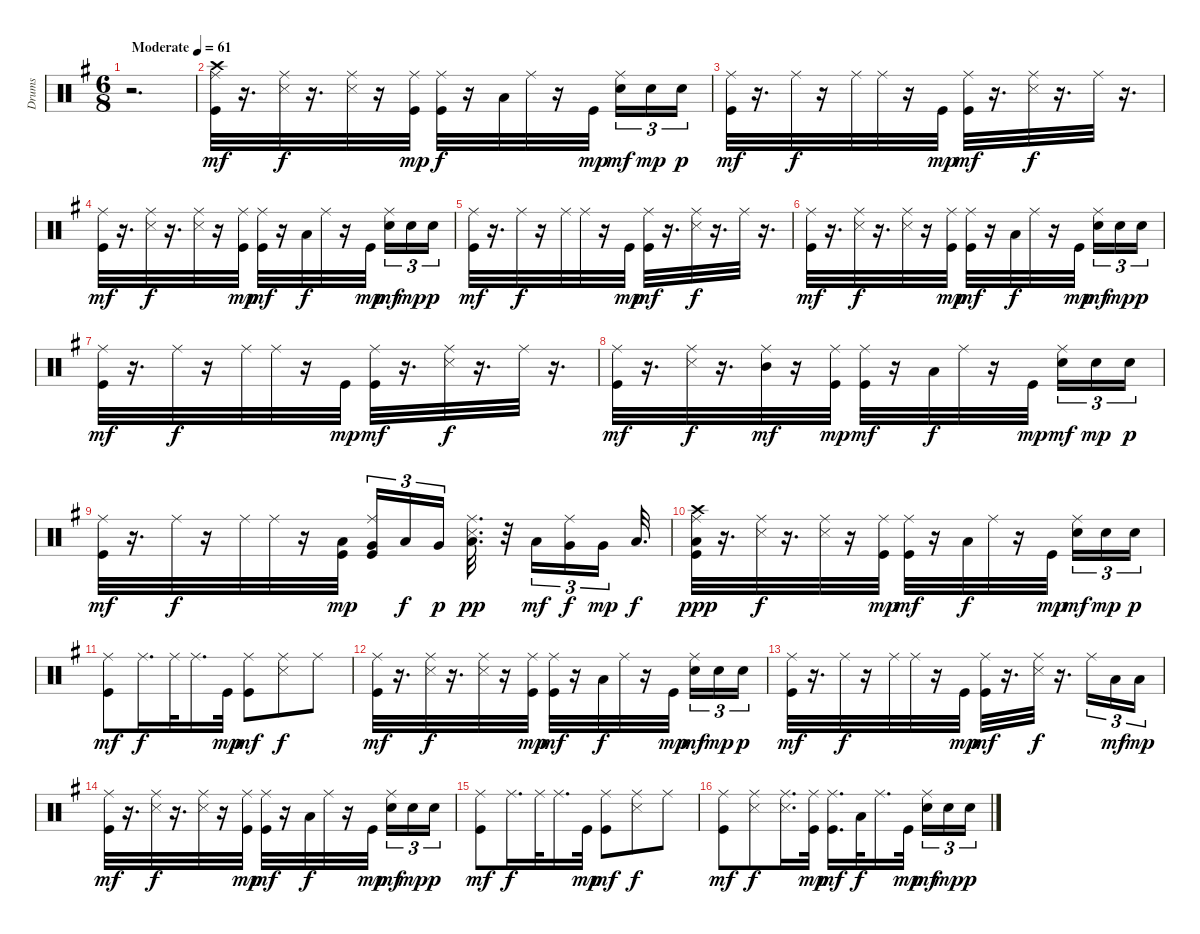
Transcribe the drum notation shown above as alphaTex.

\track ("Drums" "Drums") {instrument percussion}
\staff {score}
\articulation defaults
\ts (6 8)
\tempo (61 "Moderate")
\clef neutral
\ks g
r.2{d dy mf} |
("Kick (hit)" "Crash high (hit)" "Ride (middle)").32 r.16{d} ("Snare (side stick) 3" "Ride (middle)").32{dy f} r.16{d} ("Snare (side stick) 3" "Ride (middle)").32 r.16 ("Kick (hit)" "Ride (middle)").32{dy mp} ("Kick (hit)" "Ride (middle)").32{dy f} r.16 "Low Tom (hit)".32 "Ride (middle)".32 r.16 "Kick (hit)".32{dy mp beam splitsecondary} ("Electric Snare (hit)" "Ride (middle)").16{tu (3 2) dy mf} "Electric Snare (hit)".16{tu (3 2) dy mp} "Electric Snare (hit)".16{tu (3 2) dy p} |
("Kick (hit)" "Ride (middle)").32{dy mf} r.16{d} "Ride (middle)".32{dy f} r.16 "Ride (middle)".32 "Ride (middle)".32 r.16 "Kick (hit)".32{dy mp} ("Kick (hit)" "Ride (middle)").32{dy mf} r.16{d} ("Snare (side stick) 3" "Ride (middle)").32{dy f} r.16{d} "Ride (middle)".32 r.16{d} |
("Kick (hit)" "Ride (middle)").32{dy mf} r.16{d} ("Snare (side stick) 3" "Ride (middle)").32{dy f} r.16{d} ("Snare (side stick) 3" "Ride (middle)").32 r.16 ("Kick (hit)" "Ride (middle)").32{dy mp} ("Kick (hit)" "Ride (middle)").32{dy mf} r.16 "Low Tom (hit)".32{dy f} "Ride (middle)".32 r.16 "Kick (hit)".32{dy mp beam splitsecondary} ("Electric Snare (hit)" "Ride (middle)").16{tu (3 2) dy mf} "Electric Snare (hit)".16{tu (3 2) dy mp} "Electric Snare (hit)".16{tu (3 2) dy p} |
("Kick (hit)" "Ride (middle)").32{dy mf} r.16{d} "Ride (middle)".32{dy f} r.16 "Ride (middle)".32 "Ride (middle)".32 r.16 "Kick (hit)".32{dy mp} ("Kick (hit)" "Ride (middle)").32{dy mf} r.16{d} ("Snare (side stick) 3" "Ride (middle)").32{dy f} r.16{d} "Ride (middle)".32 r.16{d} |
("Kick (hit)" "Ride (middle)").32{dy mf} r.16{d} ("Snare (side stick) 3" "Ride (middle)").32{dy f} r.16{d} ("Snare (side stick) 3" "Ride (middle)").32 r.16 ("Kick (hit)" "Ride (middle)").32{dy mp} ("Kick (hit)" "Ride (middle)").32{dy mf} r.16 "Low Tom (hit)".32{dy f} "Ride (middle)".32 r.16 "Kick (hit)".32{dy mp beam splitsecondary} ("Electric Snare (hit)" "Ride (middle)").16{tu (3 2) dy mf} "Electric Snare (hit)".16{tu (3 2) dy mp} "Electric Snare (hit)".16{tu (3 2) dy p} |
("Kick (hit)" "Ride (middle)").32{dy mf} r.16{d} "Ride (middle)".32{dy f} r.16 "Ride (middle)".32 "Ride (middle)".32 r.16 "Kick (hit)".32{dy mp} ("Kick (hit)" "Ride (middle)").32{dy mf} r.16{d} ("Snare (side stick) 3" "Ride (middle)").32{dy f} r.16{d} "Ride (middle)".32 r.16{d} |
("Kick (hit)" "Ride (middle)").32{dy mf} r.16{d} ("Snare (side stick) 3" "Ride (middle)").32{dy f} r.16{d} ("Mid Tom (hit)" "Ride (middle)").32{dy mf} r.16 ("Kick (hit)" "Ride (middle)").32{dy mp} ("Kick (hit)" "Ride (middle)").32{dy mf} r.16 "Low Tom (hit)".32{dy f} "Ride (middle)".32 r.16 "Kick (hit)".32{dy mp beam splitsecondary} ("Electric Snare (hit)" "Ride (middle)").16{tu (3 2) dy mf} "Electric Snare (hit)".16{tu (3 2) dy mp} "Electric Snare (hit)".16{tu (3 2) dy p} |
("Kick (hit)" "Ride (middle)").32{dy mf} r.16{d} "Ride (middle)".32{dy f} r.16 "Ride (middle)".32 "Ride (middle)".32 r.16 ("Kick (hit)" "Low Tom (hit)").32{dy mp} ("Kick (hit)" "Very Low Tom (hit)" "Ride (middle)").16{tu (3 2)} "Low Tom (hit)".16{tu (3 2) dy f} "Very Low Tom (hit)".16{tu (3 2) dy p beam splitsecondary} ("Snare (side stick) 3" "Low Tom (hit)" "Ride (middle)").32{d dy pp} r.32 "Low Tom (hit)".16{tu (3 2) dy mf} ("Very Low Tom (hit)" "Ride (middle)").16{tu (3 2) dy f} "Very Low Tom (hit)".16{tu (3 2) dy mp beam splitsecondary} "Low Floor Tom (hit)".32{d dy f} |
("Kick (hit)" "Low Floor Tom (hit)" "Crash high (hit)" "Ride (middle)").32{dy ppp} r.16{d} ("Snare (side stick) 3" "Ride (middle)").32{dy f} r.16{d} ("Snare (side stick) 3" "Ride (middle)").32 r.16 ("Kick (hit)" "Ride (middle)").32{dy mp} ("Kick (hit)" "Ride (middle)").32{dy mf} r.16 "Low Tom (hit)".32{dy f} "Ride (middle)".32 r.16 "Kick (hit)".32{dy mp beam splitsecondary} ("Electric Snare (hit)" "Ride (middle)").16{tu (3 2) dy mf} "Electric Snare (hit)".16{tu (3 2) dy mp} "Electric Snare (hit)".16{tu (3 2) dy p} |
("Kick (hit)" "Ride (middle)").8{dy mf} "Ride (middle)".16{d dy f} "Ride (middle)".32 "Ride (middle)".16{d} "Kick (hit)".32{dy mp} ("Kick (hit)" "Ride (middle)").8{dy mf} ("Snare (side stick) 3" "Ride (middle)").8{dy f} "Ride (middle)".8 |
("Kick (hit)" "Ride (middle)").32{dy mf} r.16{d} ("Snare (side stick) 3" "Ride (middle)").32{dy f} r.16{d} ("Snare (side stick) 3" "Ride (middle)").32 r.16 ("Kick (hit)" "Ride (middle)").32{dy mp} ("Kick (hit)" "Ride (middle)").32{dy mf} r.16 "Low Tom (hit)".32{dy f} "Ride (middle)".32 r.16 "Kick (hit)".32{dy mp beam splitsecondary} ("Electric Snare (hit)" "Ride (middle)").16{tu (3 2) dy mf} "Electric Snare (hit)".16{tu (3 2) dy mp} "Electric Snare (hit)".16{tu (3 2) dy p} |
("Kick (hit)" "Ride (middle)").32{dy mf} r.16{d} "Ride (middle)".32{dy f} r.16 "Ride (middle)".32 "Ride (middle)".32 r.16 "Kick (hit)".32{dy mp} ("Kick (hit)" "Ride (middle)").32{dy mf} r.16{d} ("Snare (side stick) 3" "Ride (middle)").32{dy f} r.16{d} "Ride (middle)".16{tu (3 2)} "Low Tom (hit)".16{tu (3 2) dy mf} "Low Tom (hit)".16{tu (3 2) dy mp} |
("Kick (hit)" "Ride (middle)").32{dy mf} r.16{d} ("Snare (side stick) 3" "Ride (middle)").32{dy f} r.16{d} ("Snare (side stick) 3" "Ride (middle)").32 r.16 ("Kick (hit)" "Ride (middle)").32{dy mp} ("Kick (hit)" "Ride (middle)").32{dy mf} r.16 "Low Tom (hit)".32{dy f} "Ride (middle)".32 r.16 "Kick (hit)".32{dy mp beam splitsecondary} ("Electric Snare (hit)" "Ride (middle)").16{tu (3 2) dy mf} "Electric Snare (hit)".16{tu (3 2) dy mp} "Electric Snare (hit)".16{tu (3 2) dy p} |
("Kick (hit)" "Ride (middle)").8{dy mf} "Ride (middle)".16{d dy f} "Ride (middle)".32 "Ride (middle)".16{d} "Kick (hit)".32{dy mp} ("Kick (hit)" "Ride (middle)").8{dy mf} ("Snare (side stick) 3" "Ride (middle)").8{dy f} "Ride (middle)".8 |
("Kick (hit)" "Ride (middle)").8{dy mf} ("Snare (side stick) 3" "Ride (middle)").8{dy f} ("Snare (side stick) 3" "Ride (middle)").16{d} ("Kick (hit)" "Ride (middle)").32{dy mp} ("Kick (hit)" "Ride (middle)").16{d dy mf} "Low Tom (hit)".32{dy f} "Ride (middle)".16{d} "Kick (hit)".32{dy mp beam splitsecondary} ("Electric Snare (hit)" "Ride (middle)").16{tu (3 2) dy mf} "Electric Snare (hit)".16{tu (3 2) dy mp} "Electric Snare (hit)".16{tu (3 2) dy p}
